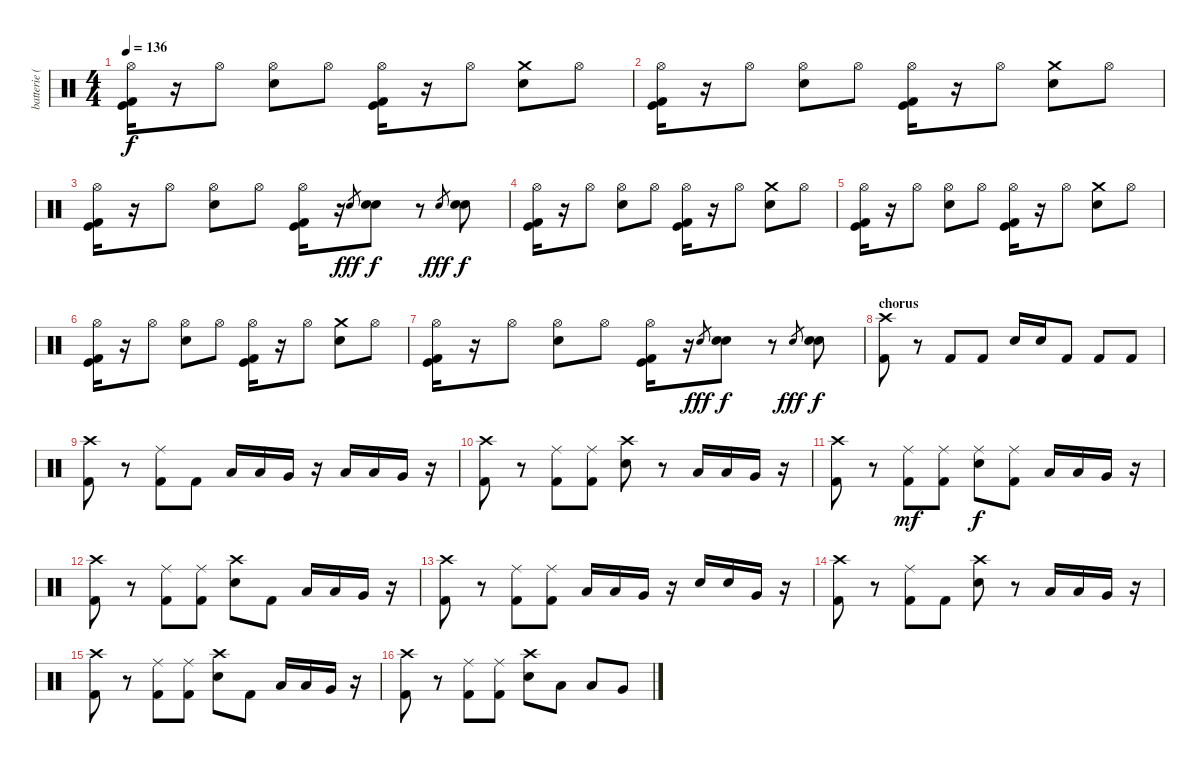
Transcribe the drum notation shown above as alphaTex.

\track ("batterie (J.Castillo)" "batterie (") {instrument percussion}
\staff {score}
\articulation defaults
\ts (4 4)
\tempo 136
\clef neutral
\ks c
("Hi-Hat (open)" "Kick (hit) 2" "Kick (hit)").16{dy f} r.16 "Hi-Hat (open)".8 ("Hi-Hat (open)" "Electric Snare (hit)").8 "Hi-Hat (open)".8 ("Hi-Hat (open)" "Kick (hit) 2" "Kick (hit)").16 r.16 "Hi-Hat (open)".8 ("Crash medium (hit)" "Electric Snare (hit)").8 "Hi-Hat (open)".8 |
("Hi-Hat (open)" "Kick (hit) 2" "Kick (hit)").16 r.16 "Hi-Hat (open)".8 ("Hi-Hat (open)" "Electric Snare (hit)").8 "Hi-Hat (open)".8 ("Hi-Hat (open)" "Kick (hit) 2" "Kick (hit)").16 r.16 "Hi-Hat (open)".8 ("Crash medium (hit)" "Electric Snare (hit)").8 "Hi-Hat (open)".8 |
("Hi-Hat (open)" "Kick (hit) 2" "Kick (hit)").16 r.16 "Hi-Hat (open)".8 ("Hi-Hat (open)" "Electric Snare (hit)").8 "Hi-Hat (open)".8 ("Hi-Hat (open)" "Kick (hit) 2" "Kick (hit)").16 r.16 "Electric Snare (hit)"{h}.8{gr dy fff} ("Electric Snare (hit)" "Electric Snare (hit)").8{dy f} r.8 "Electric Snare (hit)".8{gr dy fff} ("Electric Snare (hit)" "Electric Snare (hit)").8{dy f} |
("Hi-Hat (open)" "Kick (hit) 2" "Kick (hit)").16 r.16 "Hi-Hat (open)".8 ("Hi-Hat (open)" "Electric Snare (hit)").8 "Hi-Hat (open)".8 ("Hi-Hat (open)" "Kick (hit) 2" "Kick (hit)").16 r.16 "Hi-Hat (open)".8 ("Crash medium (hit)" "Electric Snare (hit)").8 "Hi-Hat (open)".8 |
("Hi-Hat (open)" "Kick (hit) 2" "Kick (hit)").16 r.16 "Hi-Hat (open)".8 ("Hi-Hat (open)" "Electric Snare (hit)").8 "Hi-Hat (open)".8 ("Hi-Hat (open)" "Kick (hit) 2" "Kick (hit)").16 r.16 "Hi-Hat (open)".8 ("Crash medium (hit)" "Electric Snare (hit)").8 "Hi-Hat (open)".8 |
("Hi-Hat (open)" "Kick (hit) 2" "Kick (hit)").16 r.16 "Hi-Hat (open)".8 ("Hi-Hat (open)" "Electric Snare (hit)").8 "Hi-Hat (open)".8 ("Hi-Hat (open)" "Kick (hit) 2" "Kick (hit)").16 r.16 "Hi-Hat (open)".8 ("Crash medium (hit)" "Electric Snare (hit)").8 "Hi-Hat (open)".8 |
("Hi-Hat (open)" "Kick (hit) 2" "Kick (hit)").16 r.16 "Hi-Hat (open)".8 ("Hi-Hat (open)" "Electric Snare (hit)").8 "Hi-Hat (open)".8 ("Hi-Hat (open)" "Kick (hit) 2" "Kick (hit)").16 r.16 "Electric Snare (hit)"{h}.8{gr dy fff} ("Electric Snare (hit)" "Electric Snare (hit)").8{dy f} r.8 "Electric Snare (hit)".8{gr dy fff} ("Electric Snare (hit)" "Electric Snare (hit)").8{dy f} |
\section ("" "chorus")
("Kick (hit) 2" "Crash high (hit)").8 r.8 "Kick (hit) 2".8 "Kick (hit) 2".8 "Electric Snare (hit)".16 "Electric Snare (hit)".16 "Kick (hit) 2".8 "Kick (hit) 2".8 "Kick (hit) 2".8 |
("Kick (hit) 2" "Crash high (hit)").8 r.8 ("Kick (hit) 2" "Ride (middle)").8 "Kick (hit) 2".8 "Low Tom (hit)".16 "Low Tom (hit)".16 "Very Low Tom (hit)".16 r.16 "Low Tom (hit)".16 "Low Tom (hit)".16 "Very Low Tom (hit)".16 r.16 |
("Kick (hit) 2" "Crash high (hit)").8 r.8 ("Kick (hit) 2" "Ride (middle)").8 ("Kick (hit) 2" "Ride (middle)").8 ("Electric Snare (hit)" "Crash high (hit)").8 r.8 "Low Tom (hit)".16 "Low Tom (hit)".16 "Very Low Tom (hit)".16 r.16 |
("Kick (hit) 2" "Crash high (hit)").8 r.8 ("Kick (hit) 2" "Ride (middle)").8{dy mf} ("Kick (hit) 2" "Ride (middle)").8 ("Electric Snare (hit)" "Ride (middle)").8{dy f} ("Kick (hit) 2" "Ride (middle)").8 "Low Tom (hit)".16 "Low Tom (hit)".16 "Very Low Tom (hit)".16 r.16 |
("Kick (hit) 2" "Crash high (hit)").8 r.8 ("Kick (hit) 2" "Ride (middle)").8 ("Kick (hit) 2" "Ride (middle)").8 ("Electric Snare (hit)" "Crash high (hit)").8 "Kick (hit) 2".8 "Low Tom (hit)".16 "Low Tom (hit)".16 "Very Low Tom (hit)".16 r.16 |
("Kick (hit) 2" "Crash high (hit)").8 r.8 ("Kick (hit) 2" "Ride (middle)").8 ("Kick (hit) 2" "Ride (middle)").8 "Low Tom (hit)".16 "Low Tom (hit)".16 "Very Low Tom (hit)".16 r.16 "Electric Snare (hit)".16 "Electric Snare (hit)".16 "Very Low Tom (hit)".16 r.16 |
("Kick (hit) 2" "Crash high (hit)").8 r.8 ("Kick (hit) 2" "Ride (middle)").8 "Kick (hit) 2".8 ("Electric Snare (hit)" "Crash high (hit)").8 r.8 "Low Tom (hit)".16 "Low Tom (hit)".16 "Very Low Tom (hit)".16 r.16 |
("Kick (hit) 2" "Crash high (hit)").8 r.8 ("Kick (hit) 2" "Ride (middle)").8 ("Kick (hit) 2" "Ride (middle)").8 ("Electric Snare (hit)" "Crash high (hit)").8 "Kick (hit) 2".8 "Low Tom (hit)".16 "Low Tom (hit)".16 "Very Low Tom (hit)".16 r.16 |
("Kick (hit) 2" "Crash high (hit)").8 r.8 ("Kick (hit) 2" "Ride (middle)").8 ("Kick (hit) 2" "Ride (middle)").8 ("Electric Snare (hit)" "Crash high (hit)").8 "Low Tom (hit)".8 "Low Tom (hit)".8 "Very Low Tom (hit)".8
